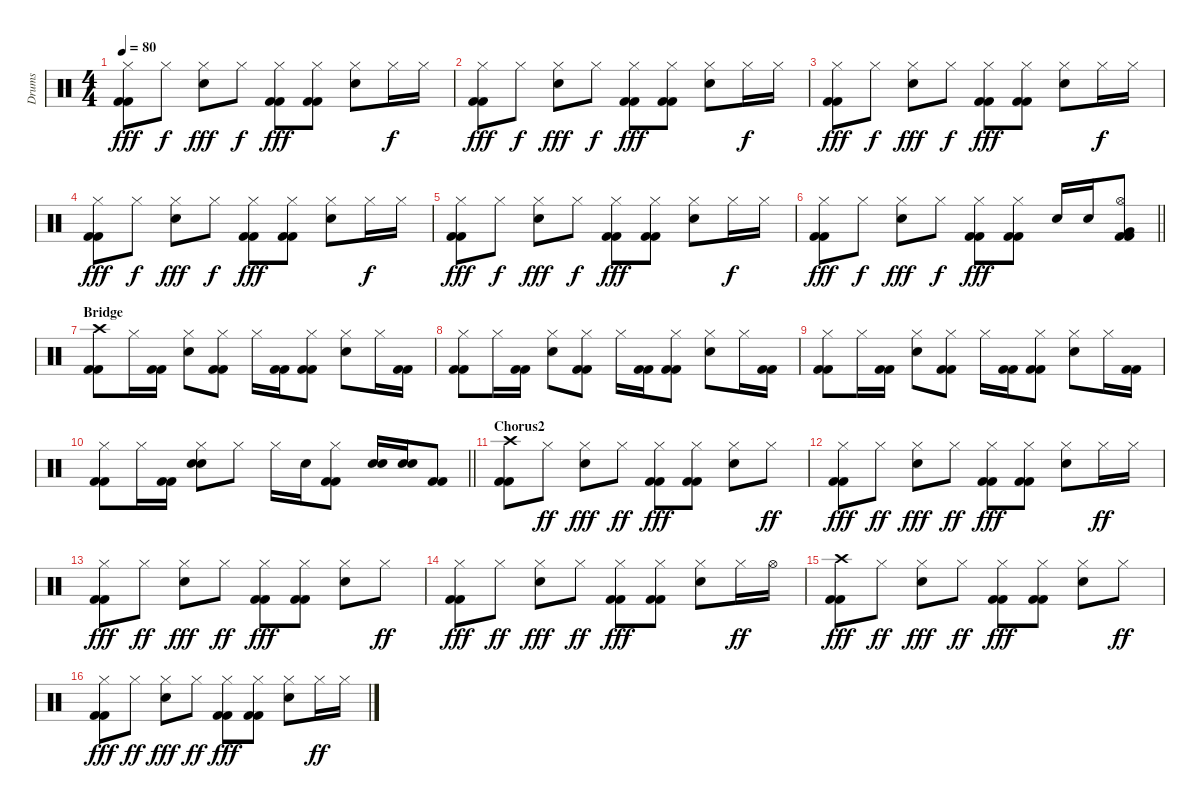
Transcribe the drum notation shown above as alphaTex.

\track ("Drums" "Drums") {instrument percussion}
\staff {score}
\articulation defaults
\ts (4 4)
\tempo 80
\clef neutral
\ks c
("Hi-Hat (closed)" "Kick (hit) 2" "Kick (hit) 2").8{dy fff} "Hi-Hat (closed)".8{dy f} ("Hi-Hat (closed)" "Electric Snare (hit)").8{dy fff} "Hi-Hat (closed)".8{dy f} ("Hi-Hat (closed)" "Kick (hit) 2" "Kick (hit) 2").8{dy fff} ("Hi-Hat (closed)" "Kick (hit) 2" "Kick (hit) 2").8 ("Hi-Hat (closed)" "Electric Snare (hit)").8 "Hi-Hat (closed)".16{dy f} "Hi-Hat (closed)".16 |
("Hi-Hat (closed)" "Kick (hit) 2" "Kick (hit) 2").8{dy fff} "Hi-Hat (closed)".8{dy f} ("Hi-Hat (closed)" "Electric Snare (hit)").8{dy fff} "Hi-Hat (closed)".8{dy f} ("Hi-Hat (closed)" "Kick (hit) 2" "Kick (hit) 2").8{dy fff} ("Hi-Hat (closed)" "Kick (hit) 2" "Kick (hit) 2").8 ("Hi-Hat (closed)" "Electric Snare (hit)").8 "Hi-Hat (closed)".16{dy f} "Hi-Hat (closed)".16 |
("Hi-Hat (closed)" "Kick (hit) 2" "Kick (hit) 2").8{dy fff} "Hi-Hat (closed)".8{dy f} ("Hi-Hat (closed)" "Electric Snare (hit)").8{dy fff} "Hi-Hat (closed)".8{dy f} ("Hi-Hat (closed)" "Kick (hit) 2" "Kick (hit) 2").8{dy fff} ("Hi-Hat (closed)" "Kick (hit) 2" "Kick (hit) 2").8 ("Hi-Hat (closed)" "Electric Snare (hit)").8 "Hi-Hat (closed)".16{dy f} "Hi-Hat (closed)".16 |
("Hi-Hat (closed)" "Kick (hit) 2" "Kick (hit) 2").8{dy fff} "Hi-Hat (closed)".8{dy f} ("Hi-Hat (closed)" "Electric Snare (hit)").8{dy fff} "Hi-Hat (closed)".8{dy f} ("Hi-Hat (closed)" "Kick (hit) 2" "Kick (hit) 2").8{dy fff} ("Hi-Hat (closed)" "Kick (hit) 2" "Kick (hit) 2").8 ("Hi-Hat (closed)" "Electric Snare (hit)").8 "Hi-Hat (closed)".16{dy f} "Hi-Hat (closed)".16 |
("Hi-Hat (closed)" "Kick (hit) 2" "Kick (hit) 2").8{dy fff} "Hi-Hat (closed)".8{dy f} ("Hi-Hat (closed)" "Electric Snare (hit)").8{dy fff} "Hi-Hat (closed)".8{dy f} ("Hi-Hat (closed)" "Kick (hit) 2" "Kick (hit) 2").8{dy fff} ("Hi-Hat (closed)" "Kick (hit) 2" "Kick (hit) 2").8 ("Hi-Hat (closed)" "Electric Snare (hit)").8 "Hi-Hat (closed)".16{dy f} "Hi-Hat (closed)".16 |
\barLineRight lightlight
("Hi-Hat (closed)" "Kick (hit) 2" "Kick (hit) 2").8{dy fff} "Hi-Hat (closed)".8{dy f} ("Hi-Hat (closed)" "Electric Snare (hit)").8{dy fff} "Hi-Hat (closed)".8{dy f} ("Hi-Hat (closed)" "Kick (hit) 2" "Kick (hit) 2").8{dy fff} ("Hi-Hat (closed)" "Kick (hit) 2" "Kick (hit) 2").8 "Electric Snare (hit)".16 "Electric Snare (hit)".16 ("Hi-Hat (open)" "Very Low Tom (hit)" "Kick (hit) 2" "Kick (hit) 2").8 |
\section ("" "Bridge")
("Crash high (hit)" "Kick (hit) 2" "Kick (hit) 2").8 "Hi-Hat (closed)".16 ("Kick (hit) 2" "Kick (hit) 2").16 ("Hi-Hat (closed)" "Electric Snare (hit)").8 ("Hi-Hat (closed)" "Kick (hit) 2" "Kick (hit) 2").8 "Hi-Hat (closed)".16 ("Kick (hit) 2" "Kick (hit) 2").16 ("Hi-Hat (closed)" "Kick (hit) 2" "Kick (hit) 2").8 ("Hi-Hat (closed)" "Electric Snare (hit)").8 "Hi-Hat (closed)".16 ("Kick (hit) 2" "Kick (hit) 2").16 |
("Hi-Hat (closed)" "Kick (hit) 2" "Kick (hit) 2").8 "Hi-Hat (closed)".16 ("Kick (hit) 2" "Kick (hit) 2").16 ("Hi-Hat (closed)" "Electric Snare (hit)").8 ("Hi-Hat (closed)" "Kick (hit) 2" "Kick (hit) 2").8 "Hi-Hat (closed)".16 ("Kick (hit) 2" "Kick (hit) 2").16 ("Hi-Hat (closed)" "Kick (hit) 2" "Kick (hit) 2").8 ("Hi-Hat (closed)" "Electric Snare (hit)").8 "Hi-Hat (closed)".16 ("Kick (hit) 2" "Kick (hit) 2").16 |
("Hi-Hat (closed)" "Kick (hit) 2" "Kick (hit) 2").8 "Hi-Hat (closed)".16 ("Kick (hit) 2" "Kick (hit) 2").16 ("Hi-Hat (closed)" "Electric Snare (hit)").8 ("Hi-Hat (closed)" "Kick (hit) 2" "Kick (hit) 2").8 "Hi-Hat (closed)".16 ("Kick (hit) 2" "Kick (hit) 2").16 ("Hi-Hat (closed)" "Kick (hit) 2" "Kick (hit) 2").8 ("Hi-Hat (closed)" "Electric Snare (hit)").8 "Hi-Hat (closed)".16 ("Kick (hit) 2" "Kick (hit) 2").16 |
\barLineRight lightlight
("Hi-Hat (closed)" "Kick (hit) 2" "Kick (hit) 2").8 "Hi-Hat (closed)".16 ("Kick (hit) 2" "Kick (hit) 2").16 ("Hi-Hat (closed)" "Electric Snare (hit)" "Electric Snare (hit)").8 "Hi-Hat (closed)".8 "Hi-Hat (closed)".16 "Electric Snare (hit)".16 ("Hi-Hat (closed)" "Kick (hit) 2" "Kick (hit) 2").8 ("Electric Snare (hit)" "Electric Snare (hit)").16 ("Electric Snare (hit)" "Electric Snare (hit)").16 ("Kick (hit) 2" "Kick (hit) 2").8 |
\section ("" "Chorus2")
("Crash high (hit)" "Kick (hit) 2" "Kick (hit) 2").8 "Hi-Hat (closed)".8{dy ff} ("Hi-Hat (closed)" "Electric Snare (hit)").8{dy fff} "Hi-Hat (closed)".8{dy ff} ("Hi-Hat (closed)" "Kick (hit) 2" "Kick (hit) 2").8{dy fff} ("Hi-Hat (closed)" "Kick (hit) 2" "Kick (hit) 2").8 ("Hi-Hat (closed)" "Electric Snare (hit)").8 "Hi-Hat (closed)".8{dy ff} |
("Hi-Hat (closed)" "Kick (hit) 2" "Kick (hit) 2").8{dy fff} "Hi-Hat (closed)".8{dy ff} ("Hi-Hat (closed)" "Electric Snare (hit)").8{dy fff} "Hi-Hat (closed)".8{dy ff} ("Hi-Hat (closed)" "Kick (hit) 2" "Kick (hit) 2").8{dy fff} ("Hi-Hat (closed)" "Kick (hit) 2" "Kick (hit) 2").8 ("Hi-Hat (closed)" "Electric Snare (hit)").8 "Hi-Hat (closed)".16{dy ff} "Hi-Hat (closed)".16 |
("Hi-Hat (closed)" "Kick (hit) 2" "Kick (hit) 2").8{dy fff} "Hi-Hat (closed)".8{dy ff} ("Hi-Hat (closed)" "Electric Snare (hit)").8{dy fff} "Hi-Hat (closed)".8{dy ff} ("Hi-Hat (closed)" "Kick (hit) 2" "Kick (hit) 2").8{dy fff} ("Hi-Hat (closed)" "Kick (hit) 2" "Kick (hit) 2").8 ("Hi-Hat (closed)" "Electric Snare (hit)").8 "Hi-Hat (closed)".8{dy ff} |
("Hi-Hat (closed)" "Kick (hit) 2" "Kick (hit) 2").8{dy fff} "Hi-Hat (closed)".8{dy ff} ("Hi-Hat (closed)" "Electric Snare (hit)").8{dy fff} "Hi-Hat (closed)".8{dy ff} ("Hi-Hat (closed)" "Kick (hit) 2" "Kick (hit) 2").8{dy fff} ("Hi-Hat (closed)" "Kick (hit) 2" "Kick (hit) 2").8 ("Hi-Hat (closed)" "Electric Snare (hit)").8 "Hi-Hat (closed)".16{dy ff} "Hi-Hat (open)".16 |
("Crash high (hit)" "Kick (hit) 2" "Kick (hit) 2").8{dy fff} "Hi-Hat (closed)".8{dy ff} ("Hi-Hat (closed)" "Electric Snare (hit)").8{dy fff} "Hi-Hat (closed)".8{dy ff} ("Hi-Hat (closed)" "Kick (hit) 2" "Kick (hit) 2").8{dy fff} ("Hi-Hat (closed)" "Kick (hit) 2" "Kick (hit) 2").8 ("Hi-Hat (closed)" "Electric Snare (hit)").8 "Hi-Hat (closed)".8{dy ff} |
("Hi-Hat (closed)" "Kick (hit) 2" "Kick (hit) 2").8{dy fff} "Hi-Hat (closed)".8{dy ff} ("Hi-Hat (closed)" "Electric Snare (hit)").8{dy fff} "Hi-Hat (closed)".8{dy ff} ("Hi-Hat (closed)" "Kick (hit) 2" "Kick (hit) 2").8{dy fff} ("Hi-Hat (closed)" "Kick (hit) 2" "Kick (hit) 2").8 ("Hi-Hat (closed)" "Electric Snare (hit)").8 "Hi-Hat (closed)".16{dy ff} "Hi-Hat (closed)".16
